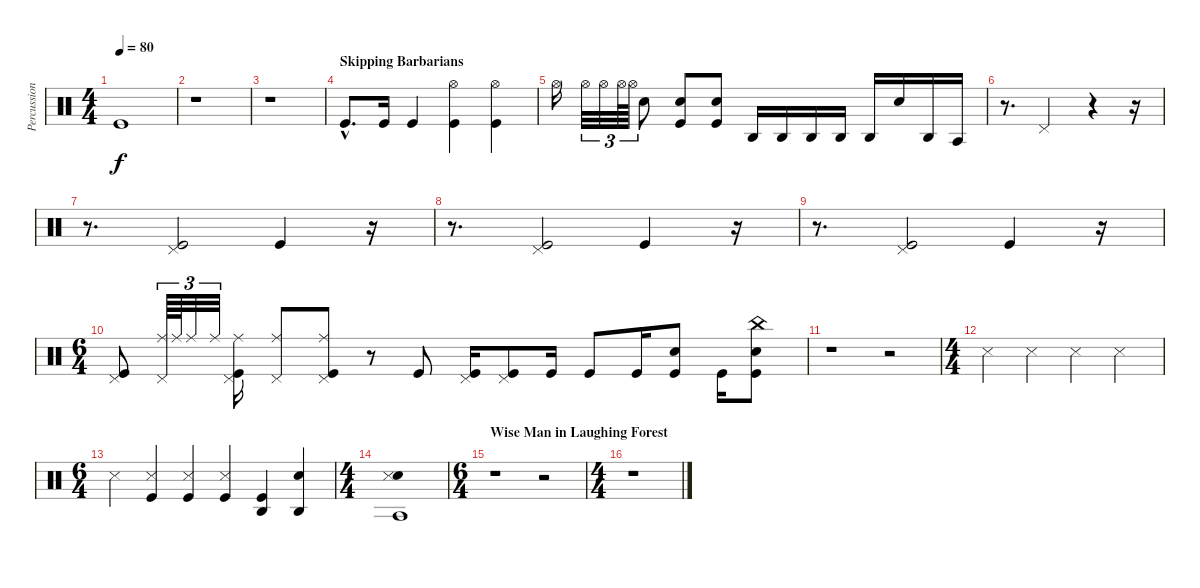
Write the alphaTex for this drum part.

\track ("Percussion" "Percussion") {instrument percussion}
\staff {score}
\articulation defaults
\ts (4 4)
\tempo 80
\clef neutral
\ks c "Kick (hit)".1{dy f}
|
r.1 |
r.1 |
\section ("" "Skipping Barbarians")
"Kick (hit)"{hac}.8{d} "Kick (hit)".16 "Kick (hit)".4 ("Hi-Hat (open)" "Kick (hit)").4 ("Hi-Hat (open)" "Kick (hit)").4 |
"Hi-Hat (open)".16 "Hi-Hat (open)".32{tu (3 2)} "Hi-Hat (open)".32{tu (3 2)} "Hi-Hat (open)".64{tu (3 2)} "Hi-Hat (open)".64{tu (3 2)} "Metronome (bell)".8 ("Kick (hit)" "Metronome (bell)").8 ("Kick (hit)" "Metronome (bell)").8 "Agogo high (hit)".16 "Agogo high (hit)".16 "Agogo high (hit)".16 "Agogo high (hit)".16 "Agogo high (hit)".16 "Snare (hit)"{x}.16 "Agogo high (hit)".16 "Agogo tow (hit)".16 |
r.8{d} "Pedal Hi-Hat (hit)".2 r.4 r.16 |
r.8{d} ("Kick (hit)" "Pedal Hi-Hat (hit)").2 "Kick (hit)".4 r.16 |
r.8{d} ("Kick (hit)" "Pedal Hi-Hat (hit)").2 "Kick (hit)".4 r.16 |
r.8{d} ("Kick (hit)" "Pedal Hi-Hat (hit)").2 "Kick (hit)".4 r.16 |
\ts (6 4)
("Pedal Hi-Hat (hit)" "Kick (hit)").8 ("Ride (middle)" "Pedal Hi-Hat (hit)").64{tu (3 2)} "Ride (middle)".64{tu (3 2)} "Ride (middle)".32{tu (3 2)} "Ride (middle)".32{tu (3 2)} ("Ride (middle)" "Pedal Hi-Hat (hit)" "Kick (hit)").16 ("Ride (middle)" "Pedal Hi-Hat (hit)").8 ("Ride (middle)" "Pedal Hi-Hat (hit)" "Kick (hit)").8 r.8 "Kick (hit)".8 ("Pedal Hi-Hat (hit)" "Kick (hit)").16 ("Pedal Hi-Hat (hit)" "Kick (hit)").8 "Kick (hit)".16 "Kick (hit)".8 "Kick (hit)".16 ("Metronome (bell)" "Kick (hit)").8 "Kick (hit)".16 ("China (hit)" "Metronome (bell)" "Kick (hit)").8 |
r.1 r.2 |
\ts (4 4)
"Metronome (hit)".4 "Metronome (hit)".4 "Metronome (hit)".4 "Metronome (hit)".4 |
\ts (6 4)
"Metronome (hit)".4 ("Kick (hit)" "Metronome (hit)").4 ("Kick (hit)" "Metronome (hit)").4 ("Kick (hit)" "Metronome (hit)").4 ("Kick (hit)" "Agogo high (hit)").4 ("Metronome (bell)" "Agogo high (hit)").4 |
\ts (4 4)
("Agogo tow (hit)" "Metronome (bell)" "Metronome (hit)").1 |
\ts (6 4)
\section ("" "Wise Man in Laughing Forest")
r.1 r.2 |
\ts (4 4)
r.1
